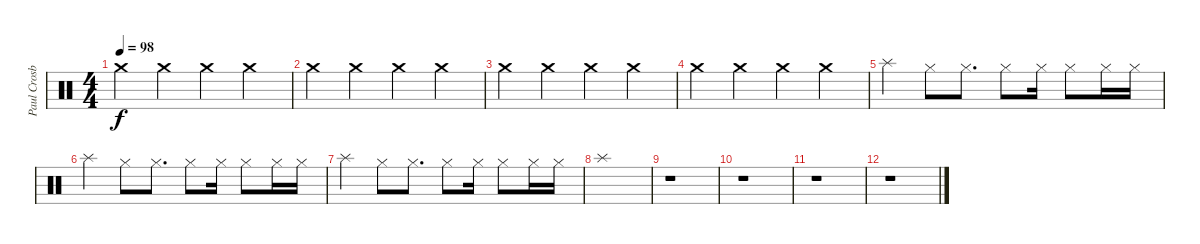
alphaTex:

\track ("Paul Crosby (Drums)" "Paul Crosb") {instrument percussion}
\staff {score}
\articulation defaults
\ts (4 4)
\tempo 98
\clef neutral
\ks c "Crash medium (hit)".4{dy f} "Crash medium (hit)".4 "Crash medium (hit)".4 "Crash medium (hit)".4
|
"Crash medium (hit)".4 "Crash medium (hit)".4 "Crash medium (hit)".4 "Crash medium (hit)".4 |
"Crash medium (hit)".4 "Crash medium (hit)".4 "Crash medium (hit)".4 "Crash medium (hit)".4 |
"Crash medium (hit)".4 "Crash medium (hit)".4 "Crash medium (hit)".4 "Crash medium (hit)".4 |
"Splash (hit)".4 "Hi-Hat (closed)".8 "Hi-Hat (closed)".8{d} "Hi-Hat (closed)".8 "Hi-Hat (closed)".16 "Hi-Hat (closed)".8 "Hi-Hat (closed)".16 "Hi-Hat (closed)".16 |
"Splash (hit)".4 "Hi-Hat (closed)".8 "Hi-Hat (closed)".8{d} "Hi-Hat (closed)".8 "Hi-Hat (closed)".16 "Hi-Hat (closed)".8 "Hi-Hat (closed)".16 "Hi-Hat (closed)".16 |
"Splash (hit)".4 "Hi-Hat (closed)".8 "Hi-Hat (closed)".8{d} "Hi-Hat (closed)".8 "Hi-Hat (closed)".16 "Hi-Hat (closed)".8 "Hi-Hat (closed)".16 "Hi-Hat (closed)".16 |
"Splash (hit)".1 |
r.1 |
r.1 |
r.1 |
r.1
